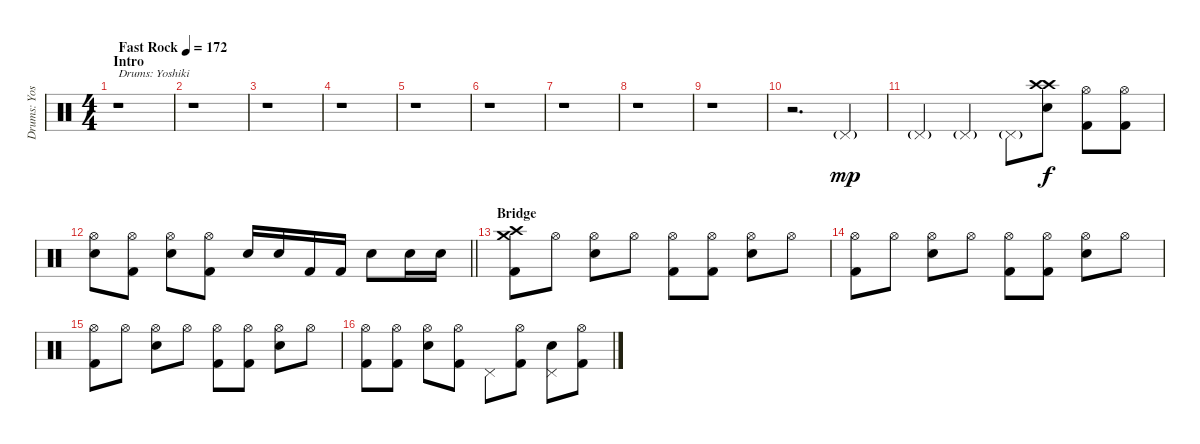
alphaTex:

\track ("Drums: Yoshiki" "Drums: Yos") {instrument percussion}
\staff {score}
\articulation defaults
\ts (4 4)
\section ("" "Intro")
\tempo (172 "Fast Rock")
\clef neutral
\ks c
r.1{txt "Drums: Yoshiki" dy mp} |
r.1 |
r.1 |
r.1 |
r.1 |
r.1 |
r.1 |
r.1 |
r.1 |
r.2{d} "Pedal Hi-Hat (hit)"{g}.4 |
"Pedal Hi-Hat (hit)"{g}.4 "Pedal Hi-Hat (hit)"{g}.4 "Pedal Hi-Hat (hit)"{g}.8 ("Crash high (hit)" "Crash high (hit)" "Snare (hit) 2").8{dy f} ("Hi-Hat (open)" "Kick (hit) 2").8 ("Hi-Hat (open)" "Kick (hit) 2").8 |
\barLineRight lightlight
("Hi-Hat (open)" "Snare (hit) 2").8 ("Hi-Hat (open)" "Kick (hit) 2").8 ("Hi-Hat (open)" "Snare (hit) 2").8 ("Hi-Hat (open)" "Kick (hit) 2").8 "Snare (hit) 2".16 "Snare (hit) 2".16 "Kick (hit) 2".16 "Kick (hit) 2".16 "Snare (hit) 2".8 "Snare (hit) 2".16 "Snare (hit) 2".16 |
\section ("" "Bridge")
("Crash high (hit)" "Crash medium (hit)" "Kick (hit) 2").8 "Hi-Hat (open)".8 ("Hi-Hat (open)" "Snare (hit) 2").8 "Hi-Hat (open)".8 ("Hi-Hat (open)" "Kick (hit) 2").8 ("Hi-Hat (open)" "Kick (hit) 2").8 ("Hi-Hat (open)" "Snare (hit) 2").8 "Hi-Hat (open)".8 |
("Hi-Hat (open)" "Kick (hit) 2").8 "Hi-Hat (open)".8 ("Hi-Hat (open)" "Snare (hit) 2").8 "Hi-Hat (open)".8 ("Hi-Hat (open)" "Kick (hit) 2").8 ("Hi-Hat (open)" "Kick (hit) 2").8 ("Hi-Hat (open)" "Snare (hit) 2").8 "Hi-Hat (open)".8 |
("Hi-Hat (open)" "Kick (hit) 2").8 "Hi-Hat (open)".8 ("Hi-Hat (open)" "Snare (hit) 2").8 "Hi-Hat (open)".8 ("Hi-Hat (open)" "Kick (hit) 2").8 ("Hi-Hat (open)" "Kick (hit) 2").8 ("Hi-Hat (open)" "Snare (hit) 2").8 "Hi-Hat (open)".8 |
("Hi-Hat (open)" "Kick (hit) 2").8 ("Hi-Hat (open)" "Kick (hit) 2").8 ("Hi-Hat (open)" "Snare (hit) 2").8 ("Hi-Hat (open)" "Kick (hit) 2").8 "Pedal Hi-Hat (hit)".8 ("Hi-Hat (open)" "Kick (hit) 2").8 ("Pedal Hi-Hat (hit)" "Snare (hit) 2").8 ("Hi-Hat (open)" "Kick (hit) 2").8
